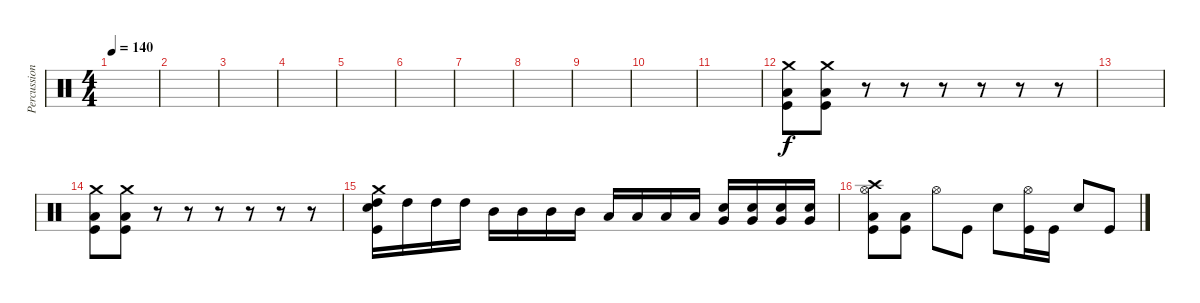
\track ("Percussion" "Percussion") {instrument percussion}
\staff {score}
\articulation defaults
\ts (4 4)
\tempo 140
\clef neutral
\ks c
|
|
|
|
|
|
|
|
|
|
|
("Crash medium (hit)" "Low Floor Tom (hit)" "Kick (hit)").8 ("Crash medium (hit)" "Low Floor Tom (hit)" "Kick (hit)").8 r.8 r.8 r.8 r.8 r.8 r.8 |
|
("Crash medium (hit)" "Low Floor Tom (hit)" "Kick (hit)").8 ("Crash medium (hit)" "Low Floor Tom (hit)" "Kick (hit)").8 r.8 r.8 r.8 r.8 r.8 r.8 |
("Crash medium (hit)" "Electric Snare (hit)" "High Tom (hit)" "Kick (hit)").16 "High Tom (hit)".16 "High Tom (hit)".16 "High Tom (hit)".16 "Mid Tom (hit)".16 "Mid Tom (hit)".16 "Mid Tom (hit)".16 "Mid Tom (hit)".16 "Low Tom (hit)".16 "Low Tom (hit)".16 "Low Tom (hit)".16 "Low Tom (hit)".16 ("Electric Snare (hit)" "Very Low Tom (hit)").16 ("Electric Snare (hit)" "Very Low Tom (hit)").16 ("Electric Snare (hit)" "Very Low Tom (hit)").16 ("Electric Snare (hit)" "Very Low Tom (hit)").16 |
("Crash high (hit)" "Hi-Hat (open)" "Low Floor Tom (hit)" "Kick (hit)").8 ("Low Floor Tom (hit)" "Kick (hit)").8 "Hi-Hat (open)".8 "Kick (hit)".8 "Electric Snare (hit)".8 ("Hi-Hat (open)" "Kick (hit)").16 "Kick (hit)".16 "Electric Snare (hit)".8 "Kick (hit)".8
